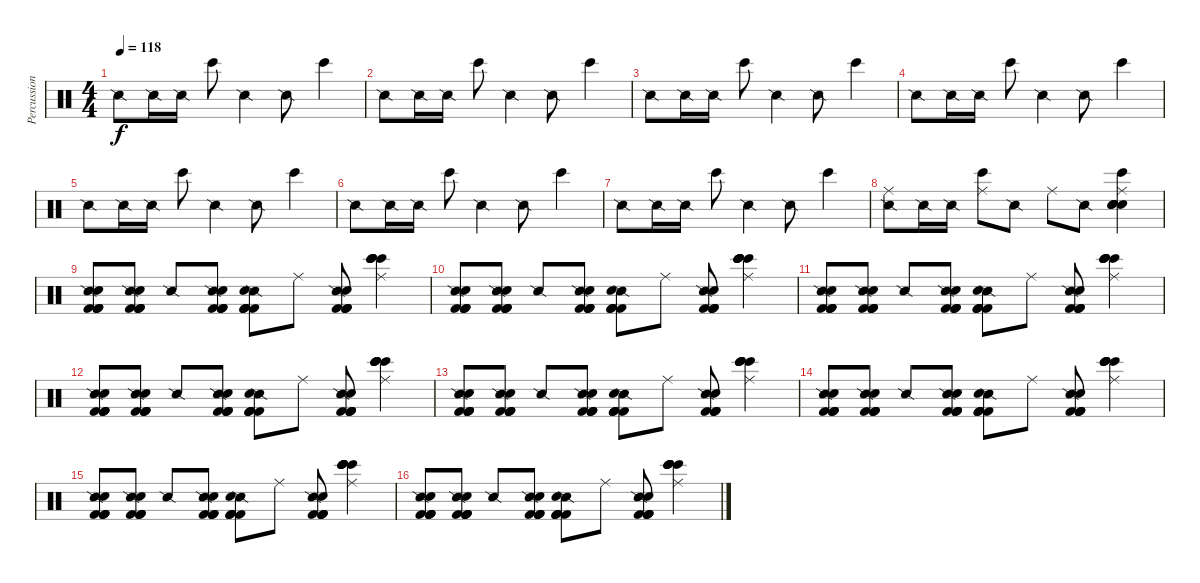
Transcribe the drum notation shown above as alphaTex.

\track ("Percussion" "Percussion") {instrument percussion}
\staff {score}
\articulation defaults
\ts (4 4)
\tempo 118
\clef neutral
\ks c "Snare (side stick) 2".8{dy f} "Snare (side stick) 2".16 "Snare (side stick) 2".16 "Bongo High (hit)".8 "Snare (side stick) 2".4 "Snare (side stick) 2".8 "Bongo High (hit)".4
|
"Snare (side stick) 2".8 "Snare (side stick) 2".16 "Snare (side stick) 2".16 "Bongo High (hit)".8 "Snare (side stick) 2".4 "Snare (side stick) 2".8 "Bongo High (hit)".4 |
"Snare (side stick) 2".8 "Snare (side stick) 2".16 "Snare (side stick) 2".16 "Bongo High (hit)".8 "Snare (side stick) 2".4 "Snare (side stick) 2".8 "Bongo High (hit)".4 |
"Snare (side stick) 2".8 "Snare (side stick) 2".16 "Snare (side stick) 2".16 "Bongo High (hit)".8 "Snare (side stick) 2".4 "Snare (side stick) 2".8 "Bongo High (hit)".4 |
"Snare (side stick) 2".8 "Snare (side stick) 2".16 "Snare (side stick) 2".16 "Bongo High (hit)".8 "Snare (side stick) 2".4 "Snare (side stick) 2".8 "Bongo High (hit)".4 |
"Snare (side stick) 2".8 "Snare (side stick) 2".16 "Snare (side stick) 2".16 "Bongo High (hit)".8 "Snare (side stick) 2".4 "Snare (side stick) 2".8 "Bongo High (hit)".4 |
"Snare (side stick) 2".8 "Snare (side stick) 2".16 "Snare (side stick) 2".16 "Bongo High (hit)".8 "Snare (side stick) 2".4 "Snare (side stick) 2".8 "Bongo High (hit)".4 |
("Snare (side stick) 2" "Ride (middle)").8 "Snare (side stick) 2".16 "Snare (side stick) 2".16 ("Bongo High (hit)" "Ride (middle)").8 "Snare (side stick) 2".8 "Ride (middle)".8 "Snare (side stick) 2".8 ("Bongo High (hit)" "Ride (middle)" "Snare (hit) 2" "Snare (hit) 2" "Snare (hit) 2" "Snare (hit) 2").4 |
("Snare (side stick) 2" "Snare (hit) 2" "Kick (hit) 2" "Kick (hit) 2" "Kick (hit) 2" "Kick (hit) 2").8 ("Snare (side stick) 2" "Snare (hit) 2" "Kick (hit) 2" "Kick (hit) 2" "Kick (hit) 2" "Kick (hit) 2").8 "Snare (side stick) 2".8 ("Snare (side stick) 2" "Snare (hit) 2" "Kick (hit) 2" "Kick (hit) 2" "Kick (hit) 2" "Kick (hit) 2").8 ("Snare (side stick) 2" "Snare (hit) 2" "Kick (hit) 2" "Kick (hit) 2" "Kick (hit) 2" "Kick (hit) 2").8 "Ride (middle)".8 ("Snare (side stick) 2" "Snare (hit) 2" "Kick (hit) 2" "Kick (hit) 2" "Kick (hit) 2" "Kick (hit) 2").8 ("Bongo High (hit)" "Ride (middle)" "Bongo High (hit)" "Bongo High (hit)" "Bongo High (hit)" "Bongo High (hit)").4 |
("Snare (side stick) 2" "Snare (hit) 2" "Kick (hit) 2" "Kick (hit) 2" "Kick (hit) 2" "Kick (hit) 2").8 ("Snare (side stick) 2" "Snare (hit) 2" "Kick (hit) 2" "Kick (hit) 2" "Kick (hit) 2" "Kick (hit) 2").8 "Snare (side stick) 2".8 ("Snare (side stick) 2" "Snare (hit) 2" "Kick (hit) 2" "Kick (hit) 2" "Kick (hit) 2" "Kick (hit) 2").8 ("Snare (side stick) 2" "Snare (hit) 2" "Kick (hit) 2" "Kick (hit) 2" "Kick (hit) 2" "Kick (hit) 2").8 "Ride (middle)".8 ("Snare (side stick) 2" "Snare (hit) 2" "Kick (hit) 2" "Kick (hit) 2" "Kick (hit) 2" "Kick (hit) 2").8 ("Bongo High (hit)" "Ride (middle)" "Bongo High (hit)" "Bongo High (hit)" "Bongo High (hit)" "Bongo High (hit)").4 |
("Snare (side stick) 2" "Snare (hit) 2" "Kick (hit) 2" "Kick (hit) 2" "Kick (hit) 2" "Kick (hit) 2").8 ("Snare (side stick) 2" "Snare (hit) 2" "Kick (hit) 2" "Kick (hit) 2" "Kick (hit) 2" "Kick (hit) 2").8 "Snare (side stick) 2".8 ("Snare (side stick) 2" "Snare (hit) 2" "Kick (hit) 2" "Kick (hit) 2" "Kick (hit) 2" "Kick (hit) 2").8 ("Snare (side stick) 2" "Snare (hit) 2" "Kick (hit) 2" "Kick (hit) 2" "Kick (hit) 2" "Kick (hit) 2").8 "Ride (middle)".8 ("Snare (side stick) 2" "Snare (hit) 2" "Kick (hit) 2" "Kick (hit) 2" "Kick (hit) 2" "Kick (hit) 2").8 ("Bongo High (hit)" "Ride (middle)" "Bongo High (hit)" "Bongo High (hit)" "Bongo High (hit)" "Bongo High (hit)").4 |
("Snare (side stick) 2" "Snare (hit) 2" "Kick (hit) 2" "Kick (hit) 2" "Kick (hit) 2" "Kick (hit) 2").8 ("Snare (side stick) 2" "Snare (hit) 2" "Kick (hit) 2" "Kick (hit) 2" "Kick (hit) 2" "Kick (hit) 2").8 "Snare (side stick) 2".8 ("Snare (side stick) 2" "Snare (hit) 2" "Kick (hit) 2" "Kick (hit) 2" "Kick (hit) 2" "Kick (hit) 2").8 ("Snare (side stick) 2" "Snare (hit) 2" "Kick (hit) 2" "Kick (hit) 2" "Kick (hit) 2" "Kick (hit) 2").8 "Ride (middle)".8 ("Snare (side stick) 2" "Snare (hit) 2" "Kick (hit) 2" "Kick (hit) 2" "Kick (hit) 2" "Kick (hit) 2").8 ("Bongo High (hit)" "Ride (middle)" "Bongo High (hit)" "Bongo High (hit)" "Bongo High (hit)" "Bongo High (hit)").4 |
("Snare (side stick) 2" "Snare (hit) 2" "Kick (hit) 2" "Kick (hit) 2" "Kick (hit) 2" "Kick (hit) 2").8 ("Snare (side stick) 2" "Snare (hit) 2" "Kick (hit) 2" "Kick (hit) 2" "Kick (hit) 2" "Kick (hit) 2").8 "Snare (side stick) 2".8 ("Snare (side stick) 2" "Snare (hit) 2" "Kick (hit) 2" "Kick (hit) 2" "Kick (hit) 2" "Kick (hit) 2").8 ("Snare (side stick) 2" "Snare (hit) 2" "Kick (hit) 2" "Kick (hit) 2" "Kick (hit) 2" "Kick (hit) 2").8 "Ride (middle)".8 ("Snare (side stick) 2" "Snare (hit) 2" "Kick (hit) 2" "Kick (hit) 2" "Kick (hit) 2" "Kick (hit) 2").8 ("Bongo High (hit)" "Ride (middle)" "Bongo High (hit)" "Bongo High (hit)" "Bongo High (hit)" "Bongo High (hit)").4 |
("Snare (side stick) 2" "Snare (hit) 2" "Kick (hit) 2" "Kick (hit) 2" "Kick (hit) 2" "Kick (hit) 2").8 ("Snare (side stick) 2" "Snare (hit) 2" "Kick (hit) 2" "Kick (hit) 2" "Kick (hit) 2" "Kick (hit) 2").8 "Snare (side stick) 2".8 ("Snare (side stick) 2" "Snare (hit) 2" "Kick (hit) 2" "Kick (hit) 2" "Kick (hit) 2" "Kick (hit) 2").8 ("Snare (side stick) 2" "Snare (hit) 2" "Kick (hit) 2" "Kick (hit) 2" "Kick (hit) 2" "Kick (hit) 2").8 "Ride (middle)".8 ("Snare (side stick) 2" "Snare (hit) 2" "Kick (hit) 2" "Kick (hit) 2" "Kick (hit) 2" "Kick (hit) 2").8 ("Bongo High (hit)" "Ride (middle)" "Bongo High (hit)" "Bongo High (hit)" "Bongo High (hit)" "Bongo High (hit)").4 |
("Snare (side stick) 2" "Snare (hit) 2" "Kick (hit) 2" "Kick (hit) 2" "Kick (hit) 2" "Kick (hit) 2").8 ("Snare (side stick) 2" "Snare (hit) 2" "Kick (hit) 2" "Kick (hit) 2" "Kick (hit) 2" "Kick (hit) 2").8 "Snare (side stick) 2".8 ("Snare (side stick) 2" "Snare (hit) 2" "Kick (hit) 2" "Kick (hit) 2" "Kick (hit) 2" "Kick (hit) 2").8 ("Snare (side stick) 2" "Snare (hit) 2" "Kick (hit) 2" "Kick (hit) 2" "Kick (hit) 2" "Kick (hit) 2").8 "Ride (middle)".8 ("Snare (side stick) 2" "Snare (hit) 2" "Kick (hit) 2" "Kick (hit) 2" "Kick (hit) 2" "Kick (hit) 2").8 ("Bongo High (hit)" "Ride (middle)" "Bongo High (hit)" "Bongo High (hit)" "Bongo High (hit)" "Bongo High (hit)").4 |
("Snare (side stick) 2" "Snare (hit) 2" "Kick (hit) 2" "Kick (hit) 2" "Kick (hit) 2" "Kick (hit) 2").8 ("Snare (side stick) 2" "Snare (hit) 2" "Kick (hit) 2" "Kick (hit) 2" "Kick (hit) 2" "Kick (hit) 2").8 "Snare (side stick) 2".8 ("Snare (side stick) 2" "Snare (hit) 2" "Kick (hit) 2" "Kick (hit) 2" "Kick (hit) 2" "Kick (hit) 2").8 ("Snare (side stick) 2" "Snare (hit) 2" "Kick (hit) 2" "Kick (hit) 2" "Kick (hit) 2" "Kick (hit) 2").8 "Ride (middle)".8 ("Snare (side stick) 2" "Snare (hit) 2" "Kick (hit) 2" "Kick (hit) 2" "Kick (hit) 2" "Kick (hit) 2").8 ("Bongo High (hit)" "Ride (middle)" "Bongo High (hit)" "Bongo High (hit)" "Bongo High (hit)" "Bongo High (hit)").4
